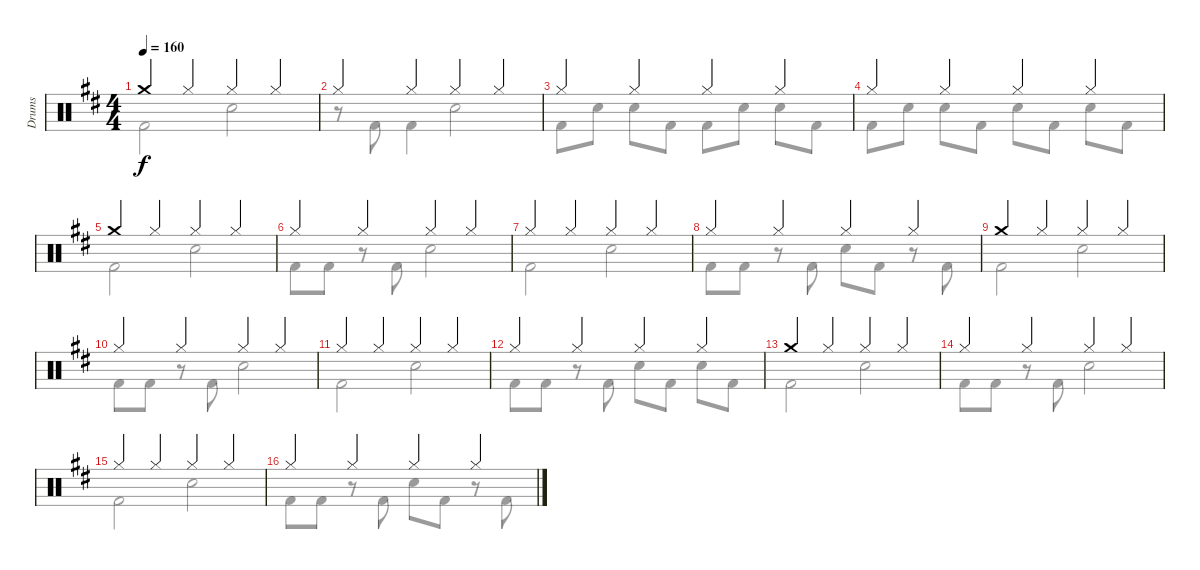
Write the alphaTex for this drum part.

\track ("Drums" "Drums") {instrument percussion}
\staff {score}
\articulation defaults
\voice
\ts (4 4)
\tempo 160
\clef neutral
\ks d "Crash medium (hit)".4{dy f} "Hi-Hat (closed)".4 "Hi-Hat (closed)".4 "Hi-Hat (closed)".4
|
"Hi-Hat (closed)".4 "Hi-Hat (closed)".4 "Hi-Hat (closed)".4 "Hi-Hat (closed)".4 |
"Hi-Hat (closed)".4 "Hi-Hat (closed)".4 "Hi-Hat (closed)".4 "Hi-Hat (closed)".4 |
"Hi-Hat (closed)".4 "Hi-Hat (closed)".4 "Hi-Hat (closed)".4 "Hi-Hat (closed)".4 |
"Crash medium (hit)".4 "Hi-Hat (closed)".4 "Hi-Hat (closed)".4 "Hi-Hat (closed)".4 |
"Hi-Hat (closed)".4 "Hi-Hat (closed)".4 "Hi-Hat (closed)".4 "Hi-Hat (closed)".4 |
"Hi-Hat (closed)".4 "Hi-Hat (closed)".4 "Hi-Hat (closed)".4 "Hi-Hat (closed)".4 |
"Hi-Hat (closed)".4 "Hi-Hat (closed)".4 "Hi-Hat (closed)".4 "Hi-Hat (closed)".4 |
"Crash medium (hit)".4 "Hi-Hat (closed)".4 "Hi-Hat (closed)".4 "Hi-Hat (closed)".4 |
"Hi-Hat (closed)".4 "Hi-Hat (closed)".4 "Hi-Hat (closed)".4 "Hi-Hat (closed)".4 |
"Hi-Hat (closed)".4 "Hi-Hat (closed)".4 "Hi-Hat (closed)".4 "Hi-Hat (closed)".4 |
"Hi-Hat (closed)".4 "Hi-Hat (closed)".4 "Hi-Hat (closed)".4 "Hi-Hat (closed)".4 |
"Crash medium (hit)".4 "Hi-Hat (closed)".4 "Hi-Hat (closed)".4 "Hi-Hat (closed)".4 |
"Hi-Hat (closed)".4 "Hi-Hat (closed)".4 "Hi-Hat (closed)".4 "Hi-Hat (closed)".4 |
"Hi-Hat (closed)".4 "Hi-Hat (closed)".4 "Hi-Hat (closed)".4 "Hi-Hat (closed)".4 |
"Hi-Hat (closed)".4 "Hi-Hat (closed)".4 "Hi-Hat (closed)".4 "Hi-Hat (closed)".4
\voice
\clef neutral
\ottava regular
\simile none
\ks d "Kick (hit) 2".2{dy f} "Snare (hit) 2".2
|
r.8 "Kick (hit) 2".8 "Kick (hit) 2".4 "Snare (hit) 2".2 |
"Kick (hit) 2".8 "Snare (hit) 2".8 "Snare (hit) 2".8 "Kick (hit) 2".8 "Kick (hit) 2".8 "Snare (hit) 2".8 "Snare (hit) 2".8 "Kick (hit) 2".8 |
"Kick (hit) 2".8 "Snare (hit) 2".8 "Snare (hit) 2".8 "Kick (hit) 2".8 "Snare (hit) 2".8 "Kick (hit) 2".8 "Snare (hit) 2".8 "Kick (hit) 2".8 |
"Kick (hit) 2".2 "Snare (hit) 2".2 |
"Kick (hit) 2".8 "Kick (hit) 2".8 r.8 "Kick (hit) 2".8 "Snare (hit) 2".2 |
"Kick (hit) 2".2 "Snare (hit) 2".2 |
"Kick (hit) 2".8 "Kick (hit) 2".8 r.8 "Kick (hit) 2".8 "Snare (hit) 2".8 "Kick (hit) 2".8 r.8 "Kick (hit) 2".8 |
"Kick (hit) 2".2 "Snare (hit) 2".2 |
"Kick (hit) 2".8 "Kick (hit) 2".8 r.8 "Kick (hit) 2".8 "Snare (hit) 2".2 |
"Kick (hit) 2".2 "Snare (hit) 2".2 |
"Kick (hit) 2".8 "Kick (hit) 2".8 r.8 "Kick (hit) 2".8 "Snare (hit) 2".8 "Kick (hit) 2".8 "Snare (hit) 2".8 "Kick (hit) 2".8 |
"Kick (hit) 2".2 "Snare (hit) 2".2 |
"Kick (hit) 2".8 "Kick (hit) 2".8 r.8 "Kick (hit) 2".8 "Snare (hit) 2".2 |
"Kick (hit) 2".2 "Snare (hit) 2".2 |
"Kick (hit) 2".8 "Kick (hit) 2".8 r.8 "Kick (hit) 2".8 "Snare (hit) 2".8 "Kick (hit) 2".8 r.8 "Kick (hit) 2".8
